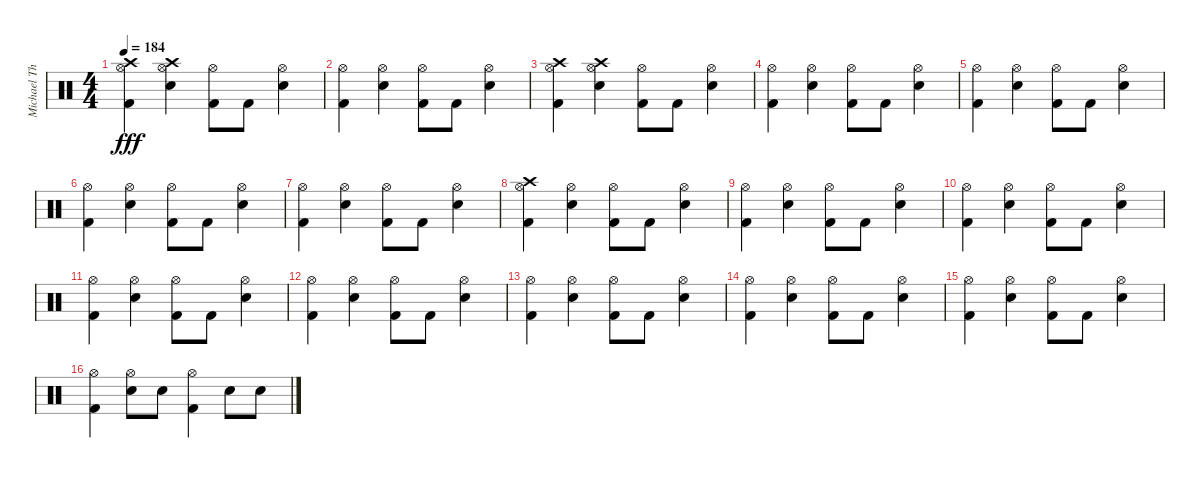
\track ("Michael Thomas" "Michael Th") {instrument percussion}
\staff {score}
\articulation defaults
\ts (4 4)
\tempo 184
\clef neutral
\ks c
("Crash high (hit)" "Hi-Hat (open)" "Kick (hit) 2").4{dy fff} ("Crash high (hit)" "Hi-Hat (open)" "Snare (hit) 2").4 ("Hi-Hat (open)" "Kick (hit) 2").8 "Kick (hit) 2".8 ("Hi-Hat (open)" "Snare (hit) 2").4 |
("Hi-Hat (open)" "Kick (hit) 2").4 ("Hi-Hat (open)" "Snare (hit) 2").4 ("Hi-Hat (open)" "Kick (hit) 2").8 "Kick (hit) 2".8 ("Hi-Hat (open)" "Snare (hit) 2").4 |
("Crash high (hit)" "Hi-Hat (open)" "Kick (hit) 2").4 ("Crash high (hit)" "Hi-Hat (open)" "Snare (hit) 2").4 ("Hi-Hat (open)" "Kick (hit) 2").8 "Kick (hit) 2".8 ("Hi-Hat (open)" "Snare (hit) 2").4 |
("Hi-Hat (open)" "Kick (hit) 2").4 ("Hi-Hat (open)" "Snare (hit) 2").4 ("Hi-Hat (open)" "Kick (hit) 2").8 "Kick (hit) 2".8 ("Hi-Hat (open)" "Snare (hit) 2").4 |
("Hi-Hat (open)" "Kick (hit) 2").4 ("Hi-Hat (open)" "Snare (hit) 2").4 ("Hi-Hat (open)" "Kick (hit) 2").8 "Kick (hit) 2".8 ("Hi-Hat (open)" "Snare (hit) 2").4 |
("Hi-Hat (open)" "Kick (hit) 2").4 ("Hi-Hat (open)" "Snare (hit) 2").4 ("Hi-Hat (open)" "Kick (hit) 2").8 "Kick (hit) 2".8 ("Hi-Hat (open)" "Snare (hit) 2").4 |
("Hi-Hat (open)" "Kick (hit) 2").4 ("Hi-Hat (open)" "Snare (hit) 2").4 ("Hi-Hat (open)" "Kick (hit) 2").8 "Kick (hit) 2".8 ("Hi-Hat (open)" "Snare (hit) 2").4 |
("Crash high (hit)" "Hi-Hat (open)" "Kick (hit) 2").4 ("Hi-Hat (open)" "Snare (hit) 2").4 ("Hi-Hat (open)" "Kick (hit) 2").8 "Kick (hit) 2".8 ("Hi-Hat (open)" "Snare (hit) 2").4 |
("Hi-Hat (open)" "Kick (hit) 2").4 ("Hi-Hat (open)" "Snare (hit) 2").4 ("Hi-Hat (open)" "Kick (hit) 2").8 "Kick (hit) 2".8 ("Hi-Hat (open)" "Snare (hit) 2").4 |
("Hi-Hat (open)" "Kick (hit) 2").4 ("Hi-Hat (open)" "Snare (hit) 2").4 ("Hi-Hat (open)" "Kick (hit) 2").8 "Kick (hit) 2".8 ("Hi-Hat (open)" "Snare (hit) 2").4 |
("Hi-Hat (open)" "Kick (hit) 2").4 ("Hi-Hat (open)" "Snare (hit) 2").4 ("Hi-Hat (open)" "Kick (hit) 2").8 "Kick (hit) 2".8 ("Hi-Hat (open)" "Snare (hit) 2").4 |
("Hi-Hat (open)" "Kick (hit) 2").4 ("Hi-Hat (open)" "Snare (hit) 2").4 ("Hi-Hat (open)" "Kick (hit) 2").8 "Kick (hit) 2".8 ("Hi-Hat (open)" "Snare (hit) 2").4 |
("Hi-Hat (open)" "Kick (hit) 2").4 ("Hi-Hat (open)" "Snare (hit) 2").4 ("Hi-Hat (open)" "Kick (hit) 2").8 "Kick (hit) 2".8 ("Hi-Hat (open)" "Snare (hit) 2").4 |
("Hi-Hat (open)" "Kick (hit) 2").4 ("Hi-Hat (open)" "Snare (hit) 2").4 ("Hi-Hat (open)" "Kick (hit) 2").8 "Kick (hit) 2".8 ("Hi-Hat (open)" "Snare (hit) 2").4 |
("Hi-Hat (open)" "Kick (hit) 2").4 ("Hi-Hat (open)" "Snare (hit) 2").4 ("Hi-Hat (open)" "Kick (hit) 2").8 "Kick (hit) 2".8 ("Hi-Hat (open)" "Snare (hit) 2").4 |
("Hi-Hat (open)" "Kick (hit) 2").4 ("Hi-Hat (open)" "Snare (hit) 2").8 "Snare (hit) 2".8 ("Hi-Hat (open)" "Kick (hit) 2").4 "Snare (hit) 2".8 "Snare (hit) 2".8
